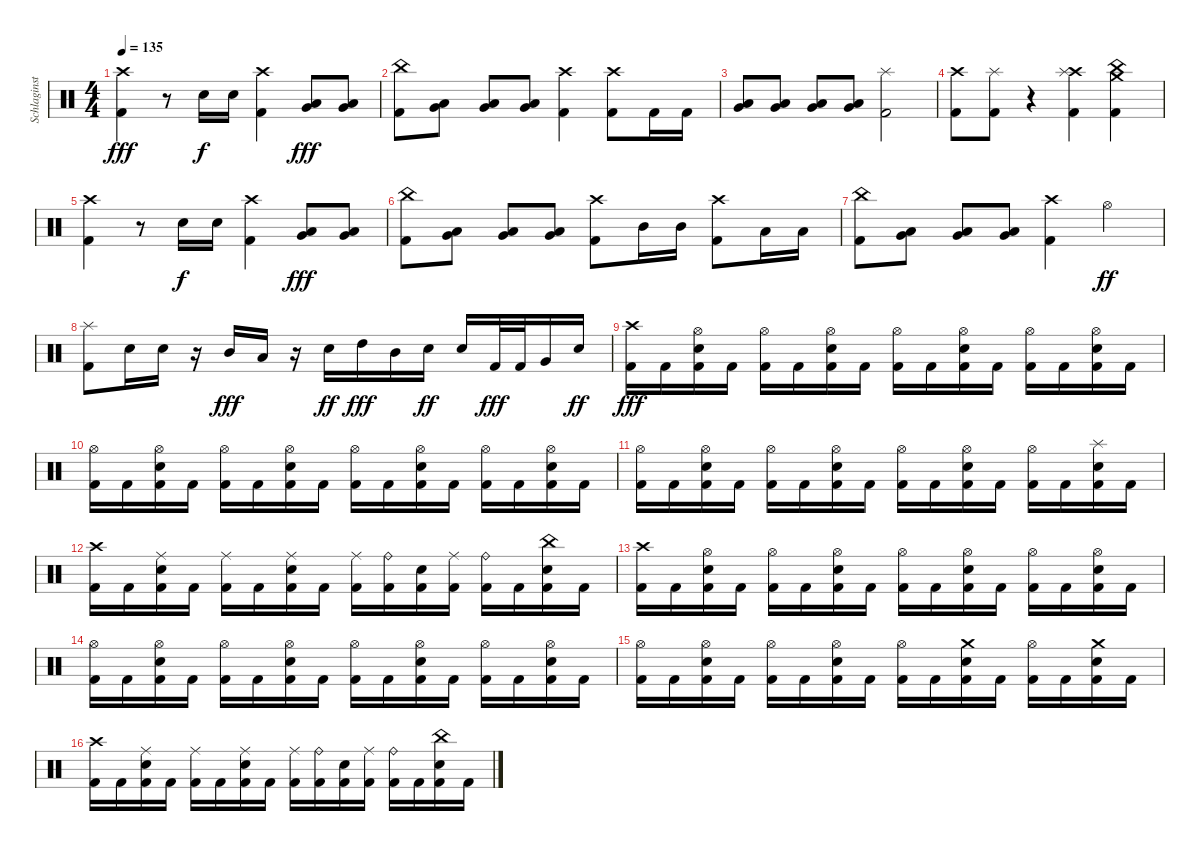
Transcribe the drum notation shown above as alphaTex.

\track ("Schlaginstrumente - Auswahl" "Schlaginst") {instrument percussion}
\staff {score}
\articulation defaults
\ts (4 4)
\tempo 135
\clef neutral
\ks c
("Crash high (hit)" "Kick (hit) 2").4{dy fff} r.8 "Snare (hit) 2".16{dy f} "Snare (hit) 2".16 ("Crash high (hit)" "Kick (hit) 2").4 ("Very Low Tom (hit)" "Low Floor Tom (hit)").8{dy fff} ("Very Low Tom (hit)" "Low Floor Tom (hit)").8 |
("China (hit)" "Kick (hit) 2").8 ("Very Low Tom (hit)" "Low Floor Tom (hit)").8 ("Very Low Tom (hit)" "Low Floor Tom (hit)").8 ("Very Low Tom (hit)" "Low Floor Tom (hit)").8 ("Crash high (hit)" "Kick (hit) 2").4 ("Crash high (hit)" "Kick (hit) 2").8 "Kick (hit) 2".16 "Kick (hit) 2".16 |
("Very Low Tom (hit)" "Low Floor Tom (hit)").8 ("Very Low Tom (hit)" "Low Floor Tom (hit)").8 ("Very Low Tom (hit)" "Low Floor Tom (hit)").8 ("Very Low Tom (hit)" "Low Floor Tom (hit)").8 ("Splash (hit)" "Kick (hit) 2").2 |
("Crash high (hit)" "Kick (hit) 2").8 ("Splash (hit)" "Kick (hit) 2").8 r.4 ("Crash high (hit)" "Splash (hit)" "Kick (hit) 2").4 ("Crash medium (hit)" "China (hit)" "Kick (hit) 2").4 |
("Crash high (hit)" "Kick (hit) 2").4 r.8 "Snare (hit) 2".16{dy f} "Snare (hit) 2".16 ("Crash high (hit)" "Kick (hit) 2").4 ("Very Low Tom (hit)" "Low Floor Tom (hit)").8{dy fff} ("Very Low Tom (hit)" "Low Floor Tom (hit)").8 |
("China (hit)" "Kick (hit) 2").8 ("Very Low Tom (hit)" "Low Floor Tom (hit)").8 ("Very Low Tom (hit)" "Low Floor Tom (hit)").8 ("Very Low Tom (hit)" "Low Floor Tom (hit)").8 ("Crash high (hit)" "Kick (hit) 2").8 "Mid Tom (hit)".16 "Mid Tom (hit)".16 ("Crash high (hit)" "Kick (hit) 2").8 "Low Tom (hit)".16 "Low Tom (hit)".16 |
("China (hit)" "Kick (hit) 2").8 ("Very Low Tom (hit)" "Low Floor Tom (hit)").8 ("Very Low Tom (hit)" "Low Floor Tom (hit)").8 ("Very Low Tom (hit)" "Low Floor Tom (hit)").8 ("Crash high (hit)" "Kick (hit) 2").4 "Hi-Hat (open)".4{dy ff} |
("Splash (hit)" "Kick (hit) 2").8 "Snare (hit) 2".16 "Snare (hit) 2".16 r.16 "Mid Tom (hit)".16{dy fff} "Low Tom (hit)".16 r.16 "Snare (hit) 2".16{dy ff} "High Tom (hit)".16{dy fff} "Mid Tom (hit)".16 "Snare (hit) 2".16{dy ff} "Snare (hit) 2".16 "Kick (hit) 2".32{dy fff} "Kick (hit) 2".32 "Very Low Tom (hit)".16 "Snare (hit) 2".16{dy ff} |
("Crash high (hit)" "Kick (hit) 2").16{dy fff} "Kick (hit) 2".16 ("Hi-Hat (open)" "Snare (hit) 2" "Kick (hit) 2").16 "Kick (hit) 2".16 ("Hi-Hat (open)" "Kick (hit) 2").16 "Kick (hit) 2".16 ("Hi-Hat (open)" "Snare (hit) 2" "Kick (hit) 2").16 "Kick (hit) 2".16 ("Hi-Hat (open)" "Kick (hit) 2").16 "Kick (hit) 2".16 ("Hi-Hat (open)" "Snare (hit) 2" "Kick (hit) 2").16 "Kick (hit) 2".16 ("Hi-Hat (open)" "Kick (hit) 2").16 "Kick (hit) 2".16 ("Hi-Hat (open)" "Snare (hit) 2" "Kick (hit) 2").16 "Kick (hit) 2".16 |
("Hi-Hat (open)" "Kick (hit) 2").16 "Kick (hit) 2".16 ("Hi-Hat (open)" "Snare (hit) 2" "Kick (hit) 2").16 "Kick (hit) 2".16 ("Hi-Hat (open)" "Kick (hit) 2").16 "Kick (hit) 2".16 ("Hi-Hat (open)" "Snare (hit) 2" "Kick (hit) 2").16 "Kick (hit) 2".16 ("Hi-Hat (open)" "Kick (hit) 2").16 "Kick (hit) 2".16 ("Hi-Hat (open)" "Snare (hit) 2" "Kick (hit) 2").16 "Kick (hit) 2".16 ("Hi-Hat (open)" "Kick (hit) 2").16 "Kick (hit) 2".16 ("Hi-Hat (open)" "Snare (hit) 2" "Kick (hit) 2").16 "Kick (hit) 2".16 |
("Hi-Hat (open)" "Kick (hit) 2").16 "Kick (hit) 2".16 ("Hi-Hat (open)" "Snare (hit) 2" "Kick (hit) 2").16 "Kick (hit) 2".16 ("Hi-Hat (open)" "Kick (hit) 2").16 "Kick (hit) 2".16 ("Hi-Hat (open)" "Snare (hit) 2" "Kick (hit) 2").16 "Kick (hit) 2".16 ("Hi-Hat (open)" "Kick (hit) 2").16 "Kick (hit) 2".16 ("Hi-Hat (open)" "Snare (hit) 2" "Kick (hit) 2").16 "Kick (hit) 2".16 ("Hi-Hat (open)" "Kick (hit) 2").16 "Kick (hit) 2".16 ("Splash (hit)" "Snare (hit) 2" "Kick (hit) 2").16 "Kick (hit) 2".16 |
("Crash high (hit)" "Kick (hit) 2").16 "Kick (hit) 2".16 ("Ride (middle)" "Snare (hit) 2" "Kick (hit) 2").16 "Kick (hit) 2".16 ("Ride (middle)" "Kick (hit) 2").16 "Kick (hit) 2".16 ("Ride (middle)" "Snare (hit) 2" "Kick (hit) 2").16 "Kick (hit) 2".16 ("Ride (middle)" "Kick (hit) 2").16 ("Ride (bell)" "Kick (hit) 2").16 ("Snare (hit) 2" "Kick (hit) 2").16 ("Ride (middle)" "Kick (hit) 2").16 ("Ride (bell)" "Kick (hit) 2").16 "Kick (hit) 2".16 ("China (hit)" "Snare (hit) 2" "Kick (hit) 2").16 "Kick (hit) 2".16 |
("Crash high (hit)" "Kick (hit) 2").16 "Kick (hit) 2".16 ("Hi-Hat (open)" "Snare (hit) 2" "Kick (hit) 2").16 "Kick (hit) 2".16 ("Hi-Hat (open)" "Kick (hit) 2").16 "Kick (hit) 2".16 ("Hi-Hat (open)" "Snare (hit) 2" "Kick (hit) 2").16 "Kick (hit) 2".16 ("Hi-Hat (open)" "Kick (hit) 2").16 "Kick (hit) 2".16 ("Hi-Hat (open)" "Snare (hit) 2" "Kick (hit) 2").16 "Kick (hit) 2".16 ("Hi-Hat (open)" "Kick (hit) 2").16 "Kick (hit) 2".16 ("Hi-Hat (open)" "Snare (hit) 2" "Kick (hit) 2").16 "Kick (hit) 2".16 |
("Hi-Hat (open)" "Kick (hit) 2").16 "Kick (hit) 2".16 ("Hi-Hat (open)" "Snare (hit) 2" "Kick (hit) 2").16 "Kick (hit) 2".16 ("Hi-Hat (open)" "Kick (hit) 2").16 "Kick (hit) 2".16 ("Hi-Hat (open)" "Snare (hit) 2" "Kick (hit) 2").16 "Kick (hit) 2".16 ("Hi-Hat (open)" "Kick (hit) 2").16 "Kick (hit) 2".16 ("Hi-Hat (open)" "Snare (hit) 2" "Kick (hit) 2").16 "Kick (hit) 2".16 ("Hi-Hat (open)" "Kick (hit) 2").16 "Kick (hit) 2".16 ("Hi-Hat (open)" "Snare (hit) 2" "Kick (hit) 2").16 "Kick (hit) 2".16 |
("Hi-Hat (open)" "Kick (hit) 2").16 "Kick (hit) 2".16 ("Hi-Hat (open)" "Snare (hit) 2" "Kick (hit) 2").16 "Kick (hit) 2".16 ("Hi-Hat (open)" "Kick (hit) 2").16 "Kick (hit) 2".16 ("Hi-Hat (open)" "Snare (hit) 2" "Kick (hit) 2").16 "Kick (hit) 2".16 ("Hi-Hat (open)" "Kick (hit) 2").16 "Kick (hit) 2".16 ("Crash medium (hit)" "Snare (hit) 2" "Kick (hit) 2").16 "Kick (hit) 2".16 ("Hi-Hat (open)" "Kick (hit) 2").16 "Kick (hit) 2".16 ("Crash medium (hit)" "Snare (hit) 2" "Kick (hit) 2").16 "Kick (hit) 2".16 |
("Crash high (hit)" "Kick (hit) 2").16 "Kick (hit) 2".16 ("Ride (middle)" "Snare (hit) 2" "Kick (hit) 2").16 "Kick (hit) 2".16 ("Ride (middle)" "Kick (hit) 2").16 "Kick (hit) 2".16 ("Ride (middle)" "Snare (hit) 2" "Kick (hit) 2").16 "Kick (hit) 2".16 ("Ride (middle)" "Kick (hit) 2").16 ("Ride (bell)" "Kick (hit) 2").16 ("Snare (hit) 2" "Kick (hit) 2").16 ("Ride (middle)" "Kick (hit) 2").16 ("Ride (bell)" "Kick (hit) 2").16 "Kick (hit) 2".16 ("China (hit)" "Snare (hit) 2" "Kick (hit) 2").16 "Kick (hit) 2".16
